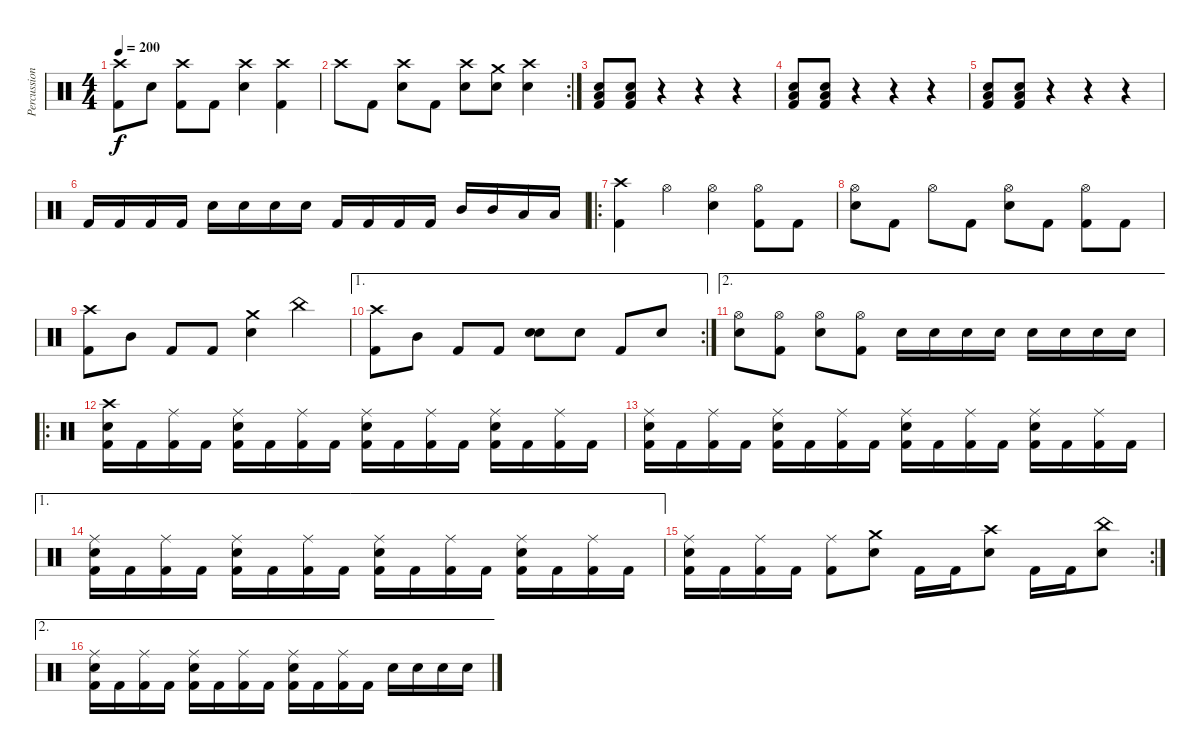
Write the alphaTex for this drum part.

\track ("Percussions" "Percussion") {instrument percussion}
\staff {score}
\articulation defaults
\ts (4 4)
\tempo 200
\clef neutral
\ks c
("Crash high (hit)" "Kick (hit) 2").8{dy f} "Snare (hit) 2".8 ("Crash high (hit)" "Kick (hit) 2").8 "Kick (hit) 2".8 ("Crash high (hit)" "Snare (hit) 2").4 ("Crash high (hit)" "Kick (hit) 2").4 |
\rc 2 "Crash high (hit)".8 "Kick (hit) 2".8
("Crash high (hit)" "Snare (hit) 2").8 "Kick (hit) 2".8 ("Crash high (hit)" "Snare (hit) 2").8 ("Crash medium (hit)" "Snare (hit) 2").8 ("Crash high (hit)" "Snare (hit) 2").4 |
("Low Floor Tom (hit)" "Snare (hit) 2" "Kick (hit) 2").8 ("Low Floor Tom (hit)" "Snare (hit) 2" "Kick (hit) 2").8 r.4 r.4 r.4 |
("Low Floor Tom (hit)" "Snare (hit) 2" "Kick (hit) 2").8 ("Low Floor Tom (hit)" "Snare (hit) 2" "Kick (hit) 2").8 r.4 r.4 r.4 |
("Low Floor Tom (hit)" "Snare (hit) 2" "Kick (hit) 2").8 ("Low Floor Tom (hit)" "Snare (hit) 2" "Kick (hit) 2").8 r.4 r.4 r.4 |
"Kick (hit) 2".16 "Kick (hit) 2".16 "Kick (hit) 2".16 "Kick (hit) 2".16 "Snare (hit) 2".16 "Snare (hit) 2".16 "Snare (hit) 2".16 "Snare (hit) 2".16 "Kick (hit) 2".16 "Kick (hit) 2".16 "Kick (hit) 2".16 "Kick (hit) 2".16 "Mid Tom (hit)".16 "Mid Tom (hit)".16 "Low Tom (hit)".16 "Low Tom (hit)".16 |
\ro
("Crash high (hit)" "Kick (hit) 2").4 "Hi-Hat (open)".4 ("Hi-Hat (open)" "Snare (hit) 2").4 ("Hi-Hat (open)" "Kick (hit) 2").8 "Kick (hit) 2".8 |
("Hi-Hat (open)" "Snare (hit) 2").8 "Kick (hit) 2".8 "Hi-Hat (open)".8 "Kick (hit) 2".8 ("Hi-Hat (open)" "Snare (hit) 2").8 "Kick (hit) 2".8 ("Hi-Hat (open)" "Kick (hit) 2").8 "Kick (hit) 2".8 |
("Crash high (hit)" "Kick (hit) 2").8 "Mid Tom (hit)".8 "Kick (hit) 2".8 "Kick (hit) 2".8 ("Crash medium (hit)" "Snare (hit) 2").4 "China (hit)".4 |
\ae 1
\rc 2
("Crash high (hit)" "Kick (hit) 2").8 "Mid Tom (hit)".8 "Kick (hit) 2".8 "Kick (hit) 2".8 ("Snare (hit) 2" "Snare (hit) 2").8{bd 120} "Snare (hit) 2".8 "Kick (hit) 2".8 "Snare (hit) 2".8 |
\ae 2
("Hi-Hat (open)" "Snare (hit) 2").8 ("Hi-Hat (open)" "Kick (hit) 2").8 ("Hi-Hat (open)" "Snare (hit) 2").8 ("Hi-Hat (open)" "Kick (hit) 2").8 "Snare (hit) 2".16 "Snare (hit) 2".16 "Snare (hit) 2".16 "Snare (hit) 2".16 "Snare (hit) 2".16 "Snare (hit) 2".16 "Snare (hit) 2".16 "Snare (hit) 2".16 |
\ro
("Crash high (hit)" "Snare (hit) 2" "Kick (hit) 2").16 "Kick (hit) 2".16 ("Ride (middle)" "Kick (hit) 2").16 "Kick (hit) 2".16 ("Ride (middle)" "Snare (hit) 2" "Kick (hit) 2").16 "Kick (hit) 2".16 ("Ride (middle)" "Kick (hit) 2").16 "Kick (hit) 2".16 ("Ride (middle)" "Snare (hit) 2" "Kick (hit) 2").16 "Kick (hit) 2".16 ("Ride (middle)" "Kick (hit) 2").16 "Kick (hit) 2".16 ("Ride (middle)" "Snare (hit) 2" "Kick (hit) 2").16 "Kick (hit) 2".16 ("Ride (middle)" "Kick (hit) 2").16 "Kick (hit) 2".16 |
("Ride (middle)" "Snare (hit) 2" "Kick (hit) 2").16 "Kick (hit) 2".16 ("Ride (middle)" "Kick (hit) 2").16 "Kick (hit) 2".16 ("Ride (middle)" "Snare (hit) 2" "Kick (hit) 2").16 "Kick (hit) 2".16 ("Ride (middle)" "Kick (hit) 2").16 "Kick (hit) 2".16 ("Ride (middle)" "Snare (hit) 2" "Kick (hit) 2").16 "Kick (hit) 2".16 ("Ride (middle)" "Kick (hit) 2").16 "Kick (hit) 2".16 ("Ride (middle)" "Snare (hit) 2" "Kick (hit) 2").16 "Kick (hit) 2".16 ("Ride (middle)" "Kick (hit) 2").16 "Kick (hit) 2".16 |
\ae 1
("Ride (middle)" "Snare (hit) 2" "Kick (hit) 2").16 "Kick (hit) 2".16 ("Ride (middle)" "Kick (hit) 2").16 "Kick (hit) 2".16 ("Ride (middle)" "Snare (hit) 2" "Kick (hit) 2").16 "Kick (hit) 2".16 ("Ride (middle)" "Kick (hit) 2").16 "Kick (hit) 2".16 ("Ride (middle)" "Snare (hit) 2" "Kick (hit) 2").16 "Kick (hit) 2".16 ("Ride (middle)" "Kick (hit) 2").16 "Kick (hit) 2".16 ("Ride (middle)" "Snare (hit) 2" "Kick (hit) 2").16 "Kick (hit) 2".16 ("Ride (middle)" "Kick (hit) 2").16 "Kick (hit) 2".16 |
\rc 2
("Ride (middle)" "Snare (hit) 2" "Kick (hit) 2").16 "Kick (hit) 2".16 ("Ride (middle)" "Kick (hit) 2").16 "Kick (hit) 2".16 ("Ride (middle)" "Kick (hit) 2").8 ("Crash medium (hit)" "Snare (hit) 2").8 "Kick (hit) 2".16 "Kick (hit) 2".16 ("Crash high (hit)" "Snare (hit) 2").8 "Kick (hit) 2".16 "Kick (hit) 2".16 ("China (hit)" "Snare (hit) 2").8 |
\ae 2
("Ride (middle)" "Snare (hit) 2" "Kick (hit) 2").16 "Kick (hit) 2".16 ("Ride (middle)" "Kick (hit) 2").16 "Kick (hit) 2".16 ("Ride (middle)" "Snare (hit) 2" "Kick (hit) 2").16 "Kick (hit) 2".16 ("Ride (middle)" "Kick (hit) 2").16 "Kick (hit) 2".16 ("Ride (middle)" "Snare (hit) 2" "Kick (hit) 2").16 "Kick (hit) 2".16 ("Ride (middle)" "Kick (hit) 2").16 "Kick (hit) 2".16 "Snare (hit) 2".16 "Snare (hit) 2".16 "Snare (hit) 2".16 "Snare (hit) 2".16
